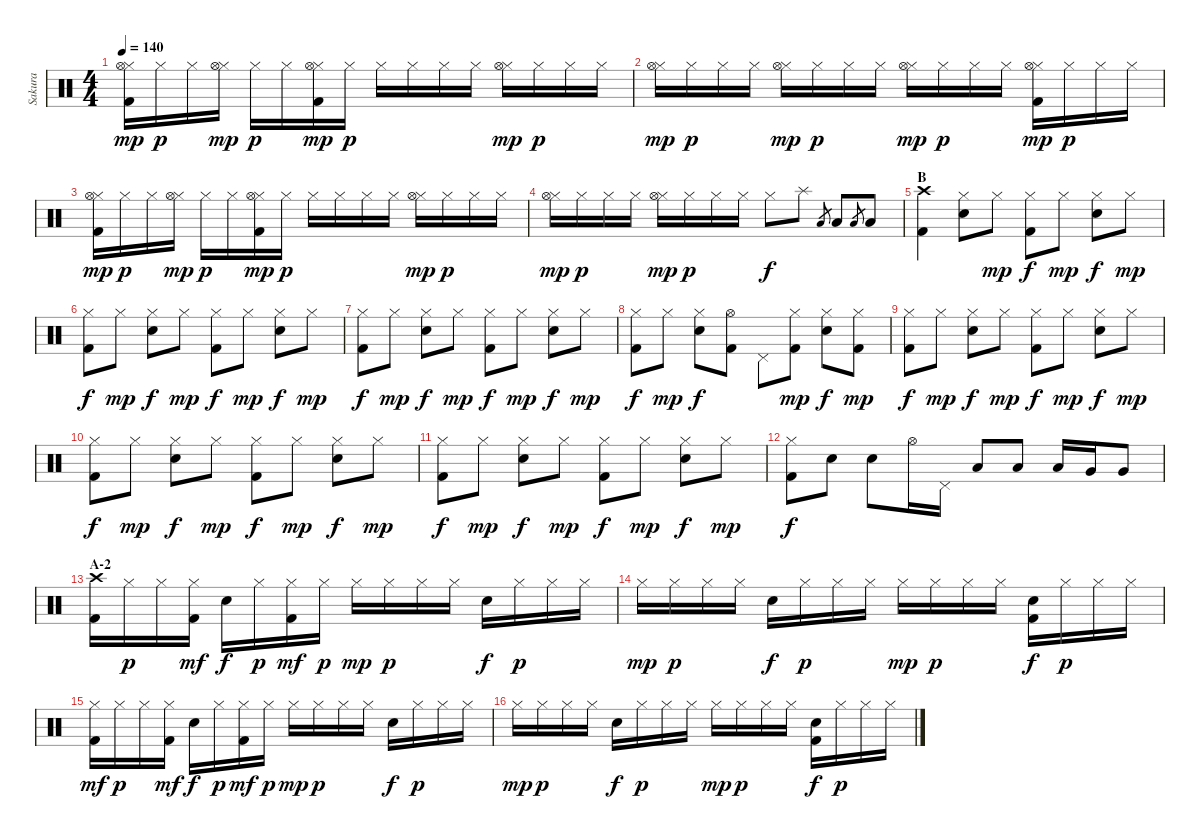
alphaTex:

\track ("Sakura" "Sakura") {instrument percussion}
\staff {score}
\articulation defaults
\ts (4 4)
\tempo 140
\clef neutral
\ks c
("Hi-Hat (closed)" "Hi-Hat (open)" "Kick (hit) 2").16{dy mp} "Hi-Hat (closed)".16{dy p} "Hi-Hat (closed)".16 ("Hi-Hat (closed)" "Hi-Hat (open)").16{dy mp} "Hi-Hat (closed)".16{dy p} "Hi-Hat (closed)".16 ("Hi-Hat (closed)" "Hi-Hat (open)" "Kick (hit) 2").16{dy mp} "Hi-Hat (closed)".16{dy p} "Hi-Hat (closed)".16 "Hi-Hat (closed)".16 "Hi-Hat (closed)".16 "Hi-Hat (closed)".16 ("Hi-Hat (closed)" "Hi-Hat (open)").16{dy mp} "Hi-Hat (closed)".16{dy p} "Hi-Hat (closed)".16 "Hi-Hat (closed)".16 |
("Hi-Hat (closed)" "Hi-Hat (open)").16{dy mp} "Hi-Hat (closed)".16{dy p} "Hi-Hat (closed)".16 "Hi-Hat (closed)".16 ("Hi-Hat (closed)" "Hi-Hat (open)").16{dy mp} "Hi-Hat (closed)".16{dy p} "Hi-Hat (closed)".16 "Hi-Hat (closed)".16 ("Hi-Hat (closed)" "Hi-Hat (open)").16{dy mp} "Hi-Hat (closed)".16{dy p} "Hi-Hat (closed)".16 "Hi-Hat (closed)".16 ("Hi-Hat (closed)" "Hi-Hat (open)" "Kick (hit) 2").16{dy mp} "Hi-Hat (closed)".16{dy p} "Hi-Hat (closed)".16 "Hi-Hat (closed)".16 |
("Hi-Hat (closed)" "Hi-Hat (open)" "Kick (hit) 2").16{dy mp} "Hi-Hat (closed)".16{dy p} "Hi-Hat (closed)".16 ("Hi-Hat (closed)" "Hi-Hat (open)").16{dy mp} "Hi-Hat (closed)".16{dy p} "Hi-Hat (closed)".16 ("Hi-Hat (closed)" "Hi-Hat (open)" "Kick (hit) 2").16{dy mp} "Hi-Hat (closed)".16{dy p} "Hi-Hat (closed)".16 "Hi-Hat (closed)".16 "Hi-Hat (closed)".16 "Hi-Hat (closed)".16 ("Hi-Hat (closed)" "Hi-Hat (open)").16{dy mp} "Hi-Hat (closed)".16{dy p} "Hi-Hat (closed)".16 "Hi-Hat (closed)".16 |
("Hi-Hat (closed)" "Hi-Hat (open)").16{dy mp} "Hi-Hat (closed)".16{dy p} "Hi-Hat (closed)".16 "Hi-Hat (closed)".16 ("Hi-Hat (closed)" "Hi-Hat (open)").16{dy mp} "Hi-Hat (closed)".16{dy p} "Hi-Hat (closed)".16 "Hi-Hat (closed)".16 "Hi-Hat (closed)".8{dy f} "Splash (hit)".8 "Low Tom (hit)".8{gr} "Low Tom (hit)".8 "Low Tom (hit)".8{gr} "Low Tom (hit)".8 |
\section ("" "B")
("Crash high (hit)" "Kick (hit) 2").4 ("Hi-Hat (closed)" "Electric Snare (hit)").8 "Hi-Hat (closed)".8{dy mp} ("Hi-Hat (closed)" "Kick (hit) 2").8{dy f} "Hi-Hat (closed)".8{dy mp} ("Hi-Hat (closed)" "Electric Snare (hit)").8{dy f} "Hi-Hat (closed)".8{dy mp} |
("Hi-Hat (closed)" "Kick (hit) 2").8{dy f} "Hi-Hat (closed)".8{dy mp} ("Hi-Hat (closed)" "Electric Snare (hit)").8{dy f} "Hi-Hat (closed)".8{dy mp} ("Hi-Hat (closed)" "Kick (hit) 2").8{dy f} "Hi-Hat (closed)".8{dy mp} ("Hi-Hat (closed)" "Electric Snare (hit)").8{dy f} "Hi-Hat (closed)".8{dy mp} |
("Hi-Hat (closed)" "Kick (hit) 2").8{dy f} "Hi-Hat (closed)".8{dy mp} ("Hi-Hat (closed)" "Electric Snare (hit)").8{dy f} "Hi-Hat (closed)".8{dy mp} ("Hi-Hat (closed)" "Kick (hit) 2").8{dy f} "Hi-Hat (closed)".8{dy mp} ("Hi-Hat (closed)" "Electric Snare (hit)").8{dy f} "Hi-Hat (closed)".8{dy mp} |
("Hi-Hat (closed)" "Kick (hit) 2").8{dy f} "Hi-Hat (closed)".8{dy mp} ("Hi-Hat (closed)" "Electric Snare (hit)").8{dy f} ("Hi-Hat (open)" "Kick (hit) 2").8 "Pedal Hi-Hat (hit)".8 ("Hi-Hat (closed)" "Kick (hit) 2").8{dy mp} ("Hi-Hat (closed)" "Electric Snare (hit)").8{dy f} ("Hi-Hat (closed)" "Kick (hit) 2").8{dy mp} |
("Hi-Hat (closed)" "Kick (hit) 2").8{dy f} "Hi-Hat (closed)".8{dy mp} ("Hi-Hat (closed)" "Electric Snare (hit)").8{dy f} "Hi-Hat (closed)".8{dy mp} ("Hi-Hat (closed)" "Kick (hit) 2").8{dy f} "Hi-Hat (closed)".8{dy mp} ("Hi-Hat (closed)" "Electric Snare (hit)").8{dy f} "Hi-Hat (closed)".8{dy mp} |
("Hi-Hat (closed)" "Kick (hit) 2").8{dy f} "Hi-Hat (closed)".8{dy mp} ("Hi-Hat (closed)" "Electric Snare (hit)").8{dy f} "Hi-Hat (closed)".8{dy mp} ("Hi-Hat (closed)" "Kick (hit) 2").8{dy f} "Hi-Hat (closed)".8{dy mp} ("Hi-Hat (closed)" "Electric Snare (hit)").8{dy f} "Hi-Hat (closed)".8{dy mp} |
("Hi-Hat (closed)" "Kick (hit) 2").8{dy f} "Hi-Hat (closed)".8{dy mp} ("Hi-Hat (closed)" "Electric Snare (hit)").8{dy f} "Hi-Hat (closed)".8{dy mp} ("Hi-Hat (closed)" "Kick (hit) 2").8{dy f} "Hi-Hat (closed)".8{dy mp} ("Hi-Hat (closed)" "Electric Snare (hit)").8{dy f} "Hi-Hat (closed)".8{dy mp} |
("Hi-Hat (closed)" "Kick (hit) 2").8{dy f} "Electric Snare (hit)".8 "Electric Snare (hit)".8 "Hi-Hat (open)".16 "Pedal Hi-Hat (hit)".16 "Low Tom (hit)".8 "Low Tom (hit)".8 "Low Tom (hit)".16 "Very Low Tom (hit)".16 "Very Low Tom (hit)".8 |
\section ("" "A-2")
("Crash high (hit)" "Kick (hit) 2").16 "Hi-Hat (closed)".16{dy p} "Hi-Hat (closed)".16 ("Hi-Hat (closed)" "Kick (hit) 2").16{dy mf} "Electric Snare (hit)".16{dy f} "Hi-Hat (closed)".16{dy p} ("Hi-Hat (closed)" "Kick (hit) 2").16{dy mf} "Hi-Hat (closed)".16{dy p} "Hi-Hat (closed)".16{dy mp} "Hi-Hat (closed)".16{dy p} "Hi-Hat (closed)".16 "Hi-Hat (closed)".16 "Electric Snare (hit)".16{dy f} "Hi-Hat (closed)".16{dy p} "Hi-Hat (closed)".16 "Hi-Hat (closed)".16 |
"Hi-Hat (closed)".16{dy mp} "Hi-Hat (closed)".16{dy p} "Hi-Hat (closed)".16 "Hi-Hat (closed)".16 "Electric Snare (hit)".16{dy f} "Hi-Hat (closed)".16{dy p} "Hi-Hat (closed)".16 "Hi-Hat (closed)".16 "Hi-Hat (closed)".16{dy mp} "Hi-Hat (closed)".16{dy p} "Hi-Hat (closed)".16 "Hi-Hat (closed)".16 ("Electric Snare (hit)" "Kick (hit) 2").16{dy f} "Hi-Hat (closed)".16{dy p} "Hi-Hat (closed)".16 "Hi-Hat (closed)".16 |
("Hi-Hat (closed)" "Kick (hit) 2").16{dy mf} "Hi-Hat (closed)".16{dy p} "Hi-Hat (closed)".16 ("Hi-Hat (closed)" "Kick (hit) 2").16{dy mf} "Electric Snare (hit)".16{dy f} "Hi-Hat (closed)".16{dy p} ("Hi-Hat (closed)" "Kick (hit) 2").16{dy mf} "Hi-Hat (closed)".16{dy p} "Hi-Hat (closed)".16{dy mp} "Hi-Hat (closed)".16{dy p} "Hi-Hat (closed)".16 "Hi-Hat (closed)".16 "Electric Snare (hit)".16{dy f} "Hi-Hat (closed)".16{dy p} "Hi-Hat (closed)".16 "Hi-Hat (closed)".16 |
"Hi-Hat (closed)".16{dy mp} "Hi-Hat (closed)".16{dy p} "Hi-Hat (closed)".16 "Hi-Hat (closed)".16 "Electric Snare (hit)".16{dy f} "Hi-Hat (closed)".16{dy p} "Hi-Hat (closed)".16 "Hi-Hat (closed)".16 "Hi-Hat (closed)".16{dy mp} "Hi-Hat (closed)".16{dy p} "Hi-Hat (closed)".16 "Hi-Hat (closed)".16 ("Electric Snare (hit)" "Kick (hit) 2").16{dy f} "Hi-Hat (closed)".16{dy p} "Hi-Hat (closed)".16 "Hi-Hat (closed)".16
